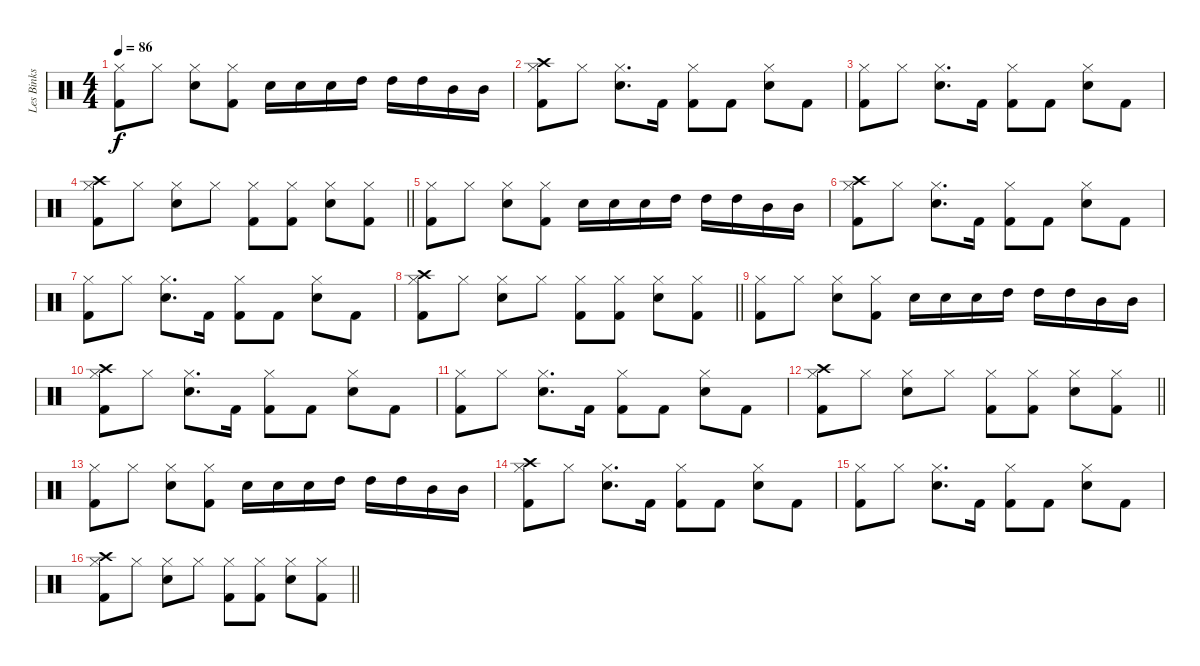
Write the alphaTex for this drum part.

\track ("Les Binks" "Les Binks") {instrument percussion}
\staff {score}
\articulation defaults
\ts (4 4)
\tempo 86
\clef neutral
\ks c
("Hi-Hat (closed)" "Kick (hit) 2").8{dy f} "Hi-Hat (closed)".8 ("Hi-Hat (closed)" "Snare (hit) 2").8 ("Hi-Hat (closed)" "Kick (hit) 2").8 "Snare (hit) 2".16 "Snare (hit) 2".16 "Snare (hit) 2".16 "High Tom (hit)".16 "High Tom (hit)".16 "High Tom (hit)".16 "Mid Tom (hit)".16 "Mid Tom (hit)".16 |
("Crash high (hit)" "Hi-Hat (closed)" "Kick (hit) 2").8 "Hi-Hat (closed)".8 ("Hi-Hat (closed)" "Snare (hit) 2").8{d} "Kick (hit) 2".16 ("Hi-Hat (closed)" "Kick (hit) 2").8 "Kick (hit) 2".8 ("Hi-Hat (closed)" "Snare (hit) 2").8 "Kick (hit) 2".8 |
("Hi-Hat (closed)" "Kick (hit) 2").8 "Hi-Hat (closed)".8 ("Hi-Hat (closed)" "Snare (hit) 2").8{d} "Kick (hit) 2".16 ("Hi-Hat (closed)" "Kick (hit) 2").8 "Kick (hit) 2".8 ("Hi-Hat (closed)" "Snare (hit) 2").8 "Kick (hit) 2".8 |
\barLineRight lightlight
("Crash high (hit)" "Hi-Hat (closed)" "Kick (hit) 2").8 "Hi-Hat (closed)".8 ("Hi-Hat (closed)" "Snare (hit) 2").8 "Hi-Hat (closed)".8 ("Hi-Hat (closed)" "Kick (hit) 2").8 ("Hi-Hat (closed)" "Kick (hit) 2").8 ("Hi-Hat (closed)" "Snare (hit) 2").8 ("Hi-Hat (closed)" "Kick (hit) 2").8 |
("Hi-Hat (closed)" "Kick (hit) 2").8 "Hi-Hat (closed)".8 ("Hi-Hat (closed)" "Snare (hit) 2").8 ("Hi-Hat (closed)" "Kick (hit) 2").8 "Snare (hit) 2".16 "Snare (hit) 2".16 "Snare (hit) 2".16 "High Tom (hit)".16 "High Tom (hit)".16 "High Tom (hit)".16 "Mid Tom (hit)".16 "Mid Tom (hit)".16 |
("Crash high (hit)" "Hi-Hat (closed)" "Kick (hit) 2").8 "Hi-Hat (closed)".8 ("Hi-Hat (closed)" "Snare (hit) 2").8{d} "Kick (hit) 2".16 ("Hi-Hat (closed)" "Kick (hit) 2").8 "Kick (hit) 2".8 ("Hi-Hat (closed)" "Snare (hit) 2").8 "Kick (hit) 2".8 |
("Hi-Hat (closed)" "Kick (hit) 2").8 "Hi-Hat (closed)".8 ("Hi-Hat (closed)" "Snare (hit) 2").8{d} "Kick (hit) 2".16 ("Hi-Hat (closed)" "Kick (hit) 2").8 "Kick (hit) 2".8 ("Hi-Hat (closed)" "Snare (hit) 2").8 "Kick (hit) 2".8 |
\barLineRight lightlight
("Crash high (hit)" "Hi-Hat (closed)" "Kick (hit) 2").8 "Hi-Hat (closed)".8 ("Hi-Hat (closed)" "Snare (hit) 2").8 "Hi-Hat (closed)".8 ("Hi-Hat (closed)" "Kick (hit) 2").8 ("Hi-Hat (closed)" "Kick (hit) 2").8 ("Hi-Hat (closed)" "Snare (hit) 2").8 ("Hi-Hat (closed)" "Kick (hit) 2").8 |
("Hi-Hat (closed)" "Kick (hit) 2").8 "Hi-Hat (closed)".8 ("Hi-Hat (closed)" "Snare (hit) 2").8 ("Hi-Hat (closed)" "Kick (hit) 2").8 "Snare (hit) 2".16 "Snare (hit) 2".16 "Snare (hit) 2".16 "High Tom (hit)".16 "High Tom (hit)".16 "High Tom (hit)".16 "Mid Tom (hit)".16 "Mid Tom (hit)".16 |
("Crash high (hit)" "Hi-Hat (closed)" "Kick (hit) 2").8 "Hi-Hat (closed)".8 ("Hi-Hat (closed)" "Snare (hit) 2").8{d} "Kick (hit) 2".16 ("Hi-Hat (closed)" "Kick (hit) 2").8 "Kick (hit) 2".8 ("Hi-Hat (closed)" "Snare (hit) 2").8 "Kick (hit) 2".8 |
("Hi-Hat (closed)" "Kick (hit) 2").8 "Hi-Hat (closed)".8 ("Hi-Hat (closed)" "Snare (hit) 2").8{d} "Kick (hit) 2".16 ("Hi-Hat (closed)" "Kick (hit) 2").8 "Kick (hit) 2".8 ("Hi-Hat (closed)" "Snare (hit) 2").8 "Kick (hit) 2".8 |
\barLineRight lightlight
("Crash high (hit)" "Hi-Hat (closed)" "Kick (hit) 2").8 "Hi-Hat (closed)".8 ("Hi-Hat (closed)" "Snare (hit) 2").8 "Hi-Hat (closed)".8 ("Hi-Hat (closed)" "Kick (hit) 2").8 ("Hi-Hat (closed)" "Kick (hit) 2").8 ("Hi-Hat (closed)" "Snare (hit) 2").8 ("Hi-Hat (closed)" "Kick (hit) 2").8 |
("Hi-Hat (closed)" "Kick (hit) 2").8 "Hi-Hat (closed)".8 ("Hi-Hat (closed)" "Snare (hit) 2").8 ("Hi-Hat (closed)" "Kick (hit) 2").8 "Snare (hit) 2".16 "Snare (hit) 2".16 "Snare (hit) 2".16 "High Tom (hit)".16 "High Tom (hit)".16 "High Tom (hit)".16 "Mid Tom (hit)".16 "Mid Tom (hit)".16 |
("Crash high (hit)" "Hi-Hat (closed)" "Kick (hit) 2").8 "Hi-Hat (closed)".8 ("Hi-Hat (closed)" "Snare (hit) 2").8{d} "Kick (hit) 2".16 ("Hi-Hat (closed)" "Kick (hit) 2").8 "Kick (hit) 2".8 ("Hi-Hat (closed)" "Snare (hit) 2").8 "Kick (hit) 2".8 |
("Hi-Hat (closed)" "Kick (hit) 2").8 "Hi-Hat (closed)".8 ("Hi-Hat (closed)" "Snare (hit) 2").8{d} "Kick (hit) 2".16 ("Hi-Hat (closed)" "Kick (hit) 2").8 "Kick (hit) 2".8 ("Hi-Hat (closed)" "Snare (hit) 2").8 "Kick (hit) 2".8 |
\barLineRight lightlight
("Crash high (hit)" "Hi-Hat (closed)" "Kick (hit) 2").8 "Hi-Hat (closed)".8 ("Hi-Hat (closed)" "Snare (hit) 2").8 "Hi-Hat (closed)".8 ("Hi-Hat (closed)" "Kick (hit) 2").8 ("Hi-Hat (closed)" "Kick (hit) 2").8 ("Hi-Hat (closed)" "Snare (hit) 2").8 ("Hi-Hat (closed)" "Kick (hit) 2").8
